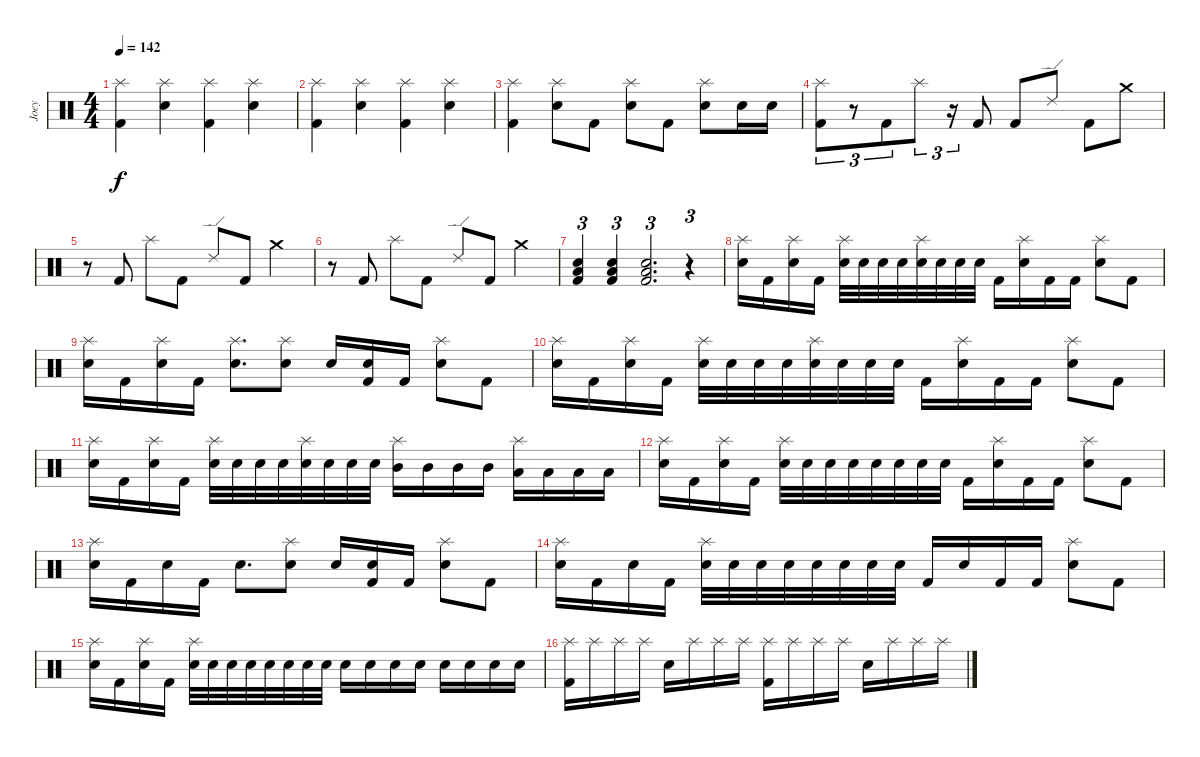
\track ("Joey" "Joey") {instrument percussion}
\staff {score}
\articulation defaults
\ts (4 4)
\tempo 142
\clef neutral
\ks c
("Splash (hit)" "Kick (hit) 2").4{dy f} ("Splash (hit)" "Snare (hit) 2").4 ("Splash (hit)" "Kick (hit) 2").4 ("Splash (hit)" "Snare (hit) 2").4 |
("Splash (hit)" "Kick (hit) 2").4 ("Splash (hit)" "Snare (hit) 2").4 ("Splash (hit)" "Kick (hit) 2").4 ("Splash (hit)" "Snare (hit) 2").4 |
("Splash (hit)" "Kick (hit) 2").4 ("Splash (hit)" "Snare (hit) 2").8 "Kick (hit) 2".8 ("Splash (hit)" "Snare (hit) 2").8 "Kick (hit) 2".8 ("Splash (hit)" "Snare (hit) 2").8 "Snare (hit) 2".16 "Snare (hit) 2".16 |
("Splash (hit)" "Kick (hit) 2").8{tu (3 2)} r.8{tu (3 2)} "Kick (hit) 2".8{tu (3 2) beam merge} "Splash (hit)".8{tu (3 2)} r.16{tu (3 2)} "Kick (hit) 2".8 "Kick (hit) 2".8 "Ride (edge) 2".8 "Kick (hit) 2".8 "Crash medium (hit)".8 |
r.8 "Kick (hit) 2".8 "Splash (hit)".8 "Kick (hit) 2".8 "Ride (edge) 2".8 "Kick (hit) 2".8 "Crash medium (hit)".4 |
r.8 "Kick (hit) 2".8 "Splash (hit)".8 "Kick (hit) 2".8 "Ride (edge) 2".8 "Kick (hit) 2".8 "Crash medium (hit)".4 |
("Snare (hit) 2" "Low Tom (hit)" "Kick (hit) 2").4{tu (3 2)} ("Snare (hit) 2" "Low Tom (hit)" "Kick (hit) 2").4{tu (3 2)} ("Snare (hit) 2" "Low Tom (hit)" "Kick (hit) 2").2{d tu (3 2)} r.4{tu (3 2)} |
("Splash (hit)" "Snare (hit) 2").16 "Kick (hit) 2".16 ("Splash (hit)" "Snare (hit) 2").16 "Kick (hit) 2".16 ("Splash (hit)" "Snare (hit) 2").32{volume 5} "Snare (hit) 2".32 "Snare (hit) 2".32 "Snare (hit) 2".32 ("Splash (hit)" "Snare (hit) 2").32 "Snare (hit) 2".32 "Snare (hit) 2".32 "Snare (hit) 2".32 "Kick (hit) 2".16{volume 16} ("Splash (hit)" "Snare (hit) 2").16 "Kick (hit) 2".16 "Kick (hit) 2".16 ("Splash (hit)" "Snare (hit) 2").8 "Kick (hit) 2".8 |
("Splash (hit)" "Snare (hit) 2").16 "Kick (hit) 2".16 ("Splash (hit)" "Snare (hit) 2").16 "Kick (hit) 2".16 ("Splash (hit)" "Snare (hit) 2").8{d} ("Splash (hit)" "Snare (hit) 2").8 "Snare (hit) 2".16 ("Snare (hit) 2" "Kick (hit) 2").16 "Kick (hit) 2".16 ("Splash (hit)" "Snare (hit) 2").8 "Kick (hit) 2".8 |
("Splash (hit)" "Snare (hit) 2").16 "Kick (hit) 2".16 ("Splash (hit)" "Snare (hit) 2").16 "Kick (hit) 2".16 ("Splash (hit)" "Snare (hit) 2").32{volume 5} "Snare (hit) 2".32 "Snare (hit) 2".32 "Snare (hit) 2".32 ("Splash (hit)" "Snare (hit) 2").32 "Snare (hit) 2".32 "Snare (hit) 2".32 "Snare (hit) 2".32 "Kick (hit) 2".16{volume 16} ("Splash (hit)" "Snare (hit) 2").16 "Kick (hit) 2".16 "Kick (hit) 2".16 ("Splash (hit)" "Snare (hit) 2").8 "Kick (hit) 2".8 |
("Splash (hit)" "Snare (hit) 2").16 "Kick (hit) 2".16 ("Splash (hit)" "Snare (hit) 2").16 "Kick (hit) 2".16 ("Splash (hit)" "Snare (hit) 2").32{volume 5} "Snare (hit) 2".32 "Snare (hit) 2".32 "Snare (hit) 2".32 ("Splash (hit)" "Snare (hit) 2").32 "Snare (hit) 2".32 "Snare (hit) 2".32 "Snare (hit) 2".32 ("Splash (hit)" "Mid Tom (hit)").16{volume 16} "Mid Tom (hit)".16 "Mid Tom (hit)".16 "Mid Tom (hit)".16 ("Splash (hit)" "Low Tom (hit)").16 "Low Tom (hit)".16 "Low Tom (hit)".16 "Low Tom (hit)".16 |
("Splash (hit)" "Snare (hit) 2").16 "Kick (hit) 2".16 ("Splash (hit)" "Snare (hit) 2").16 "Kick (hit) 2".16 ("Splash (hit)" "Snare (hit) 2").32{volume 5} "Snare (hit) 2".32 "Snare (hit) 2".32 "Snare (hit) 2".32 "Snare (hit) 2".32 "Snare (hit) 2".32 "Snare (hit) 2".32 "Snare (hit) 2".32 "Kick (hit) 2".16{volume 16} ("Splash (hit)" "Snare (hit) 2").16 "Kick (hit) 2".16 "Kick (hit) 2".16 ("Splash (hit)" "Snare (hit) 2").8 "Kick (hit) 2".8 |
("Splash (hit)" "Snare (hit) 2").16 "Kick (hit) 2".16 "Snare (hit) 2".16 "Kick (hit) 2".16 "Snare (hit) 2".8{d} ("Splash (hit)" "Snare (hit) 2").8 "Snare (hit) 2".16 ("Snare (hit) 2" "Kick (hit) 2").16 "Kick (hit) 2".16 ("Splash (hit)" "Snare (hit) 2").8 "Kick (hit) 2".8 |
("Splash (hit)" "Snare (hit) 2").16 "Kick (hit) 2".16 "Snare (hit) 2".16 "Kick (hit) 2".16 ("Splash (hit)" "Snare (hit) 2").32{volume 5} "Snare (hit) 2".32 "Snare (hit) 2".32 "Snare (hit) 2".32 "Snare (hit) 2".32 "Snare (hit) 2".32 "Snare (hit) 2".32 "Snare (hit) 2".32 "Kick (hit) 2".16{volume 16} "Snare (hit) 2".16 "Kick (hit) 2".16 "Kick (hit) 2".16 ("Splash (hit)" "Snare (hit) 2").8 "Kick (hit) 2".8 |
("Splash (hit)" "Snare (hit) 2").16 "Kick (hit) 2".16 ("Splash (hit)" "Snare (hit) 2").16 "Kick (hit) 2".16 ("Splash (hit)" "Snare (hit) 2").32{volume 5} "Snare (hit) 2".32 "Snare (hit) 2".32 "Snare (hit) 2".32 "Snare (hit) 2".32 "Snare (hit) 2".32 "Snare (hit) 2".32 "Snare (hit) 2".32 "Snare (hit) 2".16{volume 16} "Snare (hit) 2".16 "Snare (hit) 2".16 "Snare (hit) 2".16 "Snare (hit) 2".16 "Snare (hit) 2".16 "Snare (hit) 2".16 "Snare (hit) 2".16 |
("Splash (hit)" "Kick (hit) 2").16 "Splash (hit)".16 "Splash (hit)".16 "Splash (hit)".16 "Snare (hit) 2".16 "Splash (hit)".16 "Splash (hit)".16 "Splash (hit)".16 ("Splash (hit)" "Kick (hit) 2").16 "Splash (hit)".16 "Splash (hit)".16 "Splash (hit)".16 "Snare (hit) 2".16 "Splash (hit)".16 "Splash (hit)".16 "Splash (hit)".16
